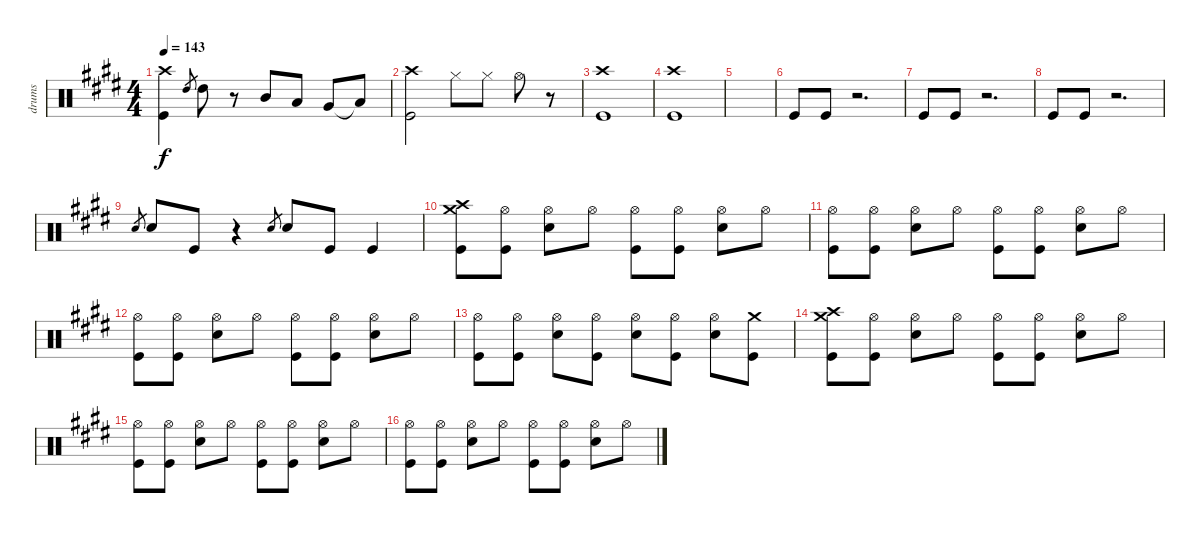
\track ("drums" "drums") {instrument percussion}
\staff {score}
\articulation defaults
\ts (4 4)
\tempo 143
\clef neutral
\ks c#minor
("Crash high (hit)" "Kick (hit)").4{dy f} "High Tom (hit)".8{gr} "High Tom (hit)".8 r.8 "Mid Tom (hit)".8 "Low Tom (hit)".8 "Very Low Tom (hit)".8 "Low Floor Tom (hit)"{t}.8 |
("Crash high (hit)" "Kick (hit)").2 "Hi-Hat (closed)".8 "Hi-Hat (closed)".8 "Hi-Hat (open)".8 r.8 |
("Crash high (hit)" "Kick (hit)").1 |
("Crash high (hit)" "Kick (hit)").1 |
|
"Kick (hit)".8 "Kick (hit)".8 r.2{d} |
"Kick (hit)".8 "Kick (hit)".8 r.2{d} |
"Kick (hit)".8 "Kick (hit)".8 r.2{d} |
"Electric Snare (hit)".8{gr} "Electric Snare (hit)".8 "Kick (hit)".8 r.4 "Electric Snare (hit)".8{gr} "Electric Snare (hit)".8 "Kick (hit)".8 "Kick (hit)".4 |
("Crash medium (hit)" "Crash high (hit)" "Kick (hit)").8 ("Hi-Hat (open)" "Kick (hit)").8 ("Hi-Hat (open)" "Electric Snare (hit)").8 "Hi-Hat (open)".8 ("Hi-Hat (open)" "Kick (hit)").8 ("Hi-Hat (open)" "Kick (hit)").8 ("Hi-Hat (open)" "Electric Snare (hit)").8 "Hi-Hat (open)".8 |
("Hi-Hat (open)" "Kick (hit)").8 ("Hi-Hat (open)" "Kick (hit)").8 ("Hi-Hat (open)" "Electric Snare (hit)").8 "Hi-Hat (open)".8 ("Hi-Hat (open)" "Kick (hit)").8 ("Hi-Hat (open)" "Kick (hit)").8 ("Hi-Hat (open)" "Electric Snare (hit)").8 "Hi-Hat (open)".8 |
("Hi-Hat (open)" "Kick (hit)").8 ("Hi-Hat (open)" "Kick (hit)").8 ("Hi-Hat (open)" "Electric Snare (hit)").8 "Hi-Hat (open)".8 ("Hi-Hat (open)" "Kick (hit)").8 ("Hi-Hat (open)" "Kick (hit)").8 ("Hi-Hat (open)" "Electric Snare (hit)").8 "Hi-Hat (open)".8 |
("Hi-Hat (open)" "Kick (hit)").8 ("Hi-Hat (open)" "Kick (hit)").8 ("Hi-Hat (open)" "Electric Snare (hit)").8 ("Hi-Hat (open)" "Kick (hit)").8 ("Hi-Hat (open)" "Electric Snare (hit)").8 ("Hi-Hat (open)" "Kick (hit)").8 ("Hi-Hat (open)" "Electric Snare (hit)").8 ("Crash medium (hit)" "Kick (hit)").8 |
("Crash medium (hit)" "Crash high (hit)" "Kick (hit)").8 ("Hi-Hat (open)" "Kick (hit)").8 ("Hi-Hat (open)" "Electric Snare (hit)").8 "Hi-Hat (open)".8 ("Hi-Hat (open)" "Kick (hit)").8 ("Hi-Hat (open)" "Kick (hit)").8 ("Hi-Hat (open)" "Electric Snare (hit)").8 "Hi-Hat (open)".8 |
("Hi-Hat (open)" "Kick (hit)").8 ("Hi-Hat (open)" "Kick (hit)").8 ("Hi-Hat (open)" "Electric Snare (hit)").8 "Hi-Hat (open)".8 ("Hi-Hat (open)" "Kick (hit)").8 ("Hi-Hat (open)" "Kick (hit)").8 ("Hi-Hat (open)" "Electric Snare (hit)").8 "Hi-Hat (open)".8 |
("Hi-Hat (open)" "Kick (hit)").8 ("Hi-Hat (open)" "Kick (hit)").8 ("Hi-Hat (open)" "Electric Snare (hit)").8 "Hi-Hat (open)".8 ("Hi-Hat (open)" "Kick (hit)").8 ("Hi-Hat (open)" "Kick (hit)").8 ("Hi-Hat (open)" "Electric Snare (hit)").8 "Hi-Hat (open)".8
